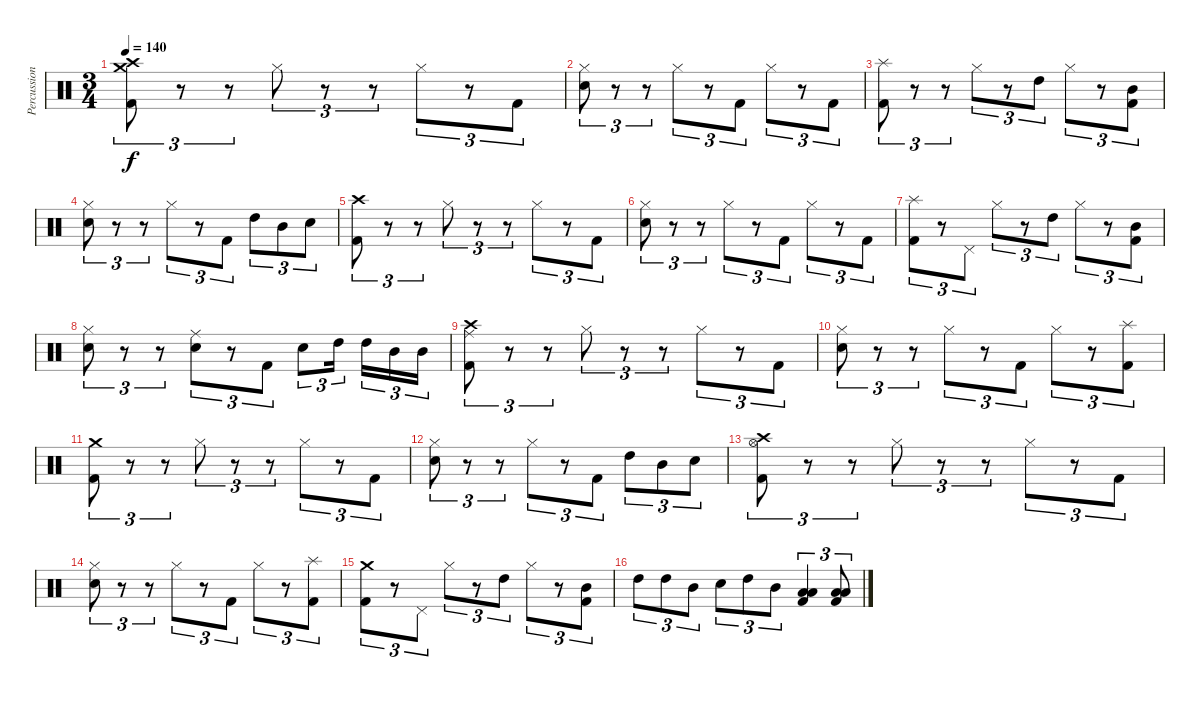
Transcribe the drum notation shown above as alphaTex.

\track ("Percussion" "Percussion") {instrument percussion}
\staff {score}
\articulation defaults
\ts (3 4)
\tempo 140
\clef neutral
\ks c
("Crash medium (hit)" "Crash high (hit)" "Kick (hit) 2").8{tu (3 2) dy f} r.8{tu (3 2)} r.8{tu (3 2)} "Hi-Hat (closed)".8{tu (3 2)} r.8{tu (3 2)} r.8{tu (3 2)} "Hi-Hat (closed)".8{tu (3 2)} r.8{tu (3 2)} "Kick (hit) 2".8{tu (3 2)} |
("Hi-Hat (closed)" "Electric Snare (hit)").8{tu (3 2)} r.8{tu (3 2)} r.8{tu (3 2)} "Hi-Hat (closed)".8{tu (3 2)} r.8{tu (3 2)} "Kick (hit) 2".8{tu (3 2)} "Hi-Hat (closed)".8{tu (3 2)} r.8{tu (3 2)} "Kick (hit) 2".8{tu (3 2)} |
("Splash (hit)" "Kick (hit) 2").8{tu (3 2)} r.8{tu (3 2)} r.8{tu (3 2)} "Hi-Hat (closed)".8{tu (3 2)} r.8{tu (3 2)} "High Tom (hit)".8{tu (3 2)} "Hi-Hat (closed)".8{tu (3 2)} r.8{tu (3 2)} ("Mid Tom (hit)" "Kick (hit) 2").8{tu (3 2)} |
("Hi-Hat (closed)" "Electric Snare (hit)").8{tu (3 2)} r.8{tu (3 2)} r.8{tu (3 2)} "Hi-Hat (closed)".8{tu (3 2)} r.8{tu (3 2)} "Kick (hit) 2".8{tu (3 2)} "High Tom (hit)".8{tu (3 2)} "Mid Tom (hit)".8{tu (3 2)} "Electric Snare (hit)".8{tu (3 2)} |
("Crash high (hit)" "Kick (hit) 2").8{tu (3 2)} r.8{tu (3 2)} r.8{tu (3 2)} "Hi-Hat (closed)".8{tu (3 2)} r.8{tu (3 2)} r.8{tu (3 2)} "Hi-Hat (closed)".8{tu (3 2)} r.8{tu (3 2)} "Kick (hit) 2".8{tu (3 2)} |
("Hi-Hat (closed)" "Electric Snare (hit)").8{tu (3 2)} r.8{tu (3 2)} r.8{tu (3 2)} "Hi-Hat (closed)".8{tu (3 2)} r.8{tu (3 2)} "Kick (hit) 2".8{tu (3 2)} "Hi-Hat (closed)".8{tu (3 2)} r.8{tu (3 2)} "Kick (hit) 2".8{tu (3 2)} |
("Splash (hit)" "Kick (hit) 2").8{tu (3 2)} r.8{tu (3 2)} "Pedal Hi-Hat (hit)".8{tu (3 2)} "Hi-Hat (closed)".8{tu (3 2)} r.8{tu (3 2)} "High Tom (hit)".8{tu (3 2)} "Hi-Hat (closed)".8{tu (3 2)} r.8{tu (3 2)} ("Mid Tom (hit)" "Kick (hit) 2").8{tu (3 2)} |
("Hi-Hat (closed)" "Electric Snare (hit)").8{tu (3 2)} r.8{tu (3 2)} r.8{tu (3 2)} ("Ride (middle)" "Electric Snare (hit)").8{tu (3 2)} r.8{tu (3 2)} "Kick (hit) 2".8{tu (3 2)} "Electric Snare (hit)".8{tu (3 2)} "High Tom (hit)".16{tu (3 2) beam splitsecondary} "High Tom (hit)".16{tu (3 2)} "Mid Tom (hit)".16{tu (3 2)} "Mid Tom (hit)".16{tu (3 2)} |
("Crash high (hit)" "Ride (middle)" "Kick (hit) 2").8{tu (3 2)} r.8{tu (3 2)} r.8{tu (3 2)} "Hi-Hat (closed)".8{tu (3 2)} r.8{tu (3 2)} r.8{tu (3 2)} "Hi-Hat (closed)".8{tu (3 2)} r.8{tu (3 2)} "Kick (hit) 2".8{tu (3 2)} |
("Hi-Hat (closed)" "Electric Snare (hit)").8{tu (3 2)} r.8{tu (3 2)} r.8{tu (3 2)} "Hi-Hat (closed)".8{tu (3 2)} r.8{tu (3 2)} "Kick (hit) 2".8{tu (3 2)} "Hi-Hat (closed)".8{tu (3 2)} r.8{tu (3 2)} ("Splash (hit)" "Kick (hit) 2").8{tu (3 2)} |
("Crash medium (hit)" "Kick (hit) 2").8{tu (3 2)} r.8{tu (3 2)} r.8{tu (3 2)} "Hi-Hat (closed)".8{tu (3 2)} r.8{tu (3 2)} r.8{tu (3 2)} "Hi-Hat (closed)".8{tu (3 2)} r.8{tu (3 2)} "Kick (hit) 2".8{tu (3 2)} |
("Hi-Hat (closed)" "Electric Snare (hit)").8{tu (3 2)} r.8{tu (3 2)} r.8{tu (3 2)} "Hi-Hat (closed)".8{tu (3 2)} r.8{tu (3 2)} "Kick (hit) 2".8{tu (3 2)} "High Tom (hit)".8{tu (3 2)} "Mid Tom (hit)".8{tu (3 2)} "Electric Snare (hit)".8{tu (3 2)} |
("Crash high (hit)" "Hi-Hat (open)" "Kick (hit) 2").8{tu (3 2)} r.8{tu (3 2)} r.8{tu (3 2)} "Hi-Hat (closed)".8{tu (3 2)} r.8{tu (3 2)} r.8{tu (3 2)} "Hi-Hat (closed)".8{tu (3 2)} r.8{tu (3 2)} "Kick (hit) 2".8{tu (3 2)} |
("Hi-Hat (closed)" "Electric Snare (hit)").8{tu (3 2)} r.8{tu (3 2)} r.8{tu (3 2)} "Hi-Hat (closed)".8{tu (3 2)} r.8{tu (3 2)} "Kick (hit) 2".8{tu (3 2)} "Hi-Hat (closed)".8{tu (3 2)} r.8{tu (3 2)} ("Splash (hit)" "Kick (hit) 2").8{tu (3 2)} |
("Crash medium (hit)" "Kick (hit) 2").8{tu (3 2)} r.8{tu (3 2)} "Pedal Hi-Hat (hit)".8{tu (3 2)} "Hi-Hat (closed)".8{tu (3 2)} r.8{tu (3 2)} "High Tom (hit)".8{tu (3 2)} "Hi-Hat (closed)".8{tu (3 2)} r.8{tu (3 2)} ("Mid Tom (hit)" "Kick (hit) 2").8{tu (3 2)} |
"High Tom (hit)".8{tu (3 2)} "High Tom (hit)".8{tu (3 2)} "Mid Tom (hit)".8{tu (3 2)} "Electric Snare (hit)".8{tu (3 2)} "High Tom (hit)".8{tu (3 2)} "Mid Tom (hit)".8{tu (3 2)} ("Low Tom (hit)" "Low Floor Tom (hit)" "Kick (hit) 2").4{tu (3 2)} ("Low Tom (hit)" "Low Floor Tom (hit)" "Kick (hit) 2").8{tu (3 2)}
